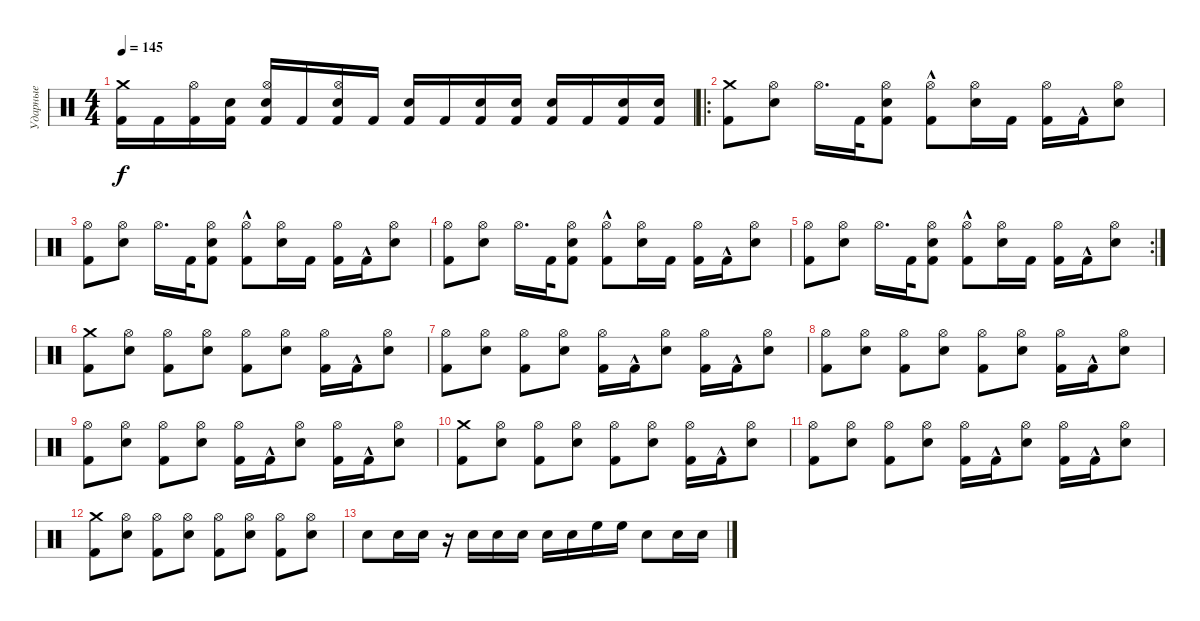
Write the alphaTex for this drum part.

\track ("Ударные" "Ударные") {instrument percussion}
\staff {score}
\articulation defaults
\ts (4 4)
\tempo 145
\clef neutral
\ks c
("Crash medium (hit)" "Kick (hit) 2").16{dy f} "Kick (hit) 2".16 ("Hi-Hat (open)" "Kick (hit) 2").16 ("Snare (hit) 2" "Kick (hit) 2").16 ("Snare (hit) 2" "Hi-Hat (open)" "Kick (hit) 2").16 "Kick (hit) 2".16 ("Snare (hit) 2" "Hi-Hat (open)" "Kick (hit) 2").16 "Kick (hit) 2".16 ("Snare (hit) 2" "Kick (hit) 2").16 "Kick (hit) 2".16 ("Snare (hit) 2" "Kick (hit) 2").16 ("Snare (hit) 2" "Kick (hit) 2").16 ("Snare (hit) 2" "Kick (hit) 2").16 "Kick (hit) 2".16 ("Snare (hit) 2" "Kick (hit) 2").16 ("Snare (hit) 2" "Kick (hit) 2").16 |
\ro
("Kick (hit) 2" "Crash medium (hit)").8 ("Snare (hit) 2" "Hi-Hat (open)").8 "Hi-Hat (open)".16{d} "Kick (hit) 2".32 ("Kick (hit) 2" "Snare (hit) 2" "Hi-Hat (open)").8 ("Kick (hit) 2"{hac} "Hi-Hat (open)").8 ("Snare (hit) 2" "Hi-Hat (open)").16 "Kick (hit) 2".16 ("Kick (hit) 2" "Hi-Hat (open)").16 "Kick (hit) 2"{hac}.16 ("Snare (hit) 2" "Hi-Hat (open)").8 |
("Hi-Hat (open)" "Kick (hit) 2").8 ("Snare (hit) 2" "Hi-Hat (open)").8 "Hi-Hat (open)".16{d} "Kick (hit) 2".32 ("Kick (hit) 2" "Snare (hit) 2" "Hi-Hat (open)").8 ("Kick (hit) 2"{hac} "Hi-Hat (open)").8 ("Snare (hit) 2" "Hi-Hat (open)").16 "Kick (hit) 2".16 ("Kick (hit) 2" "Hi-Hat (open)").16 "Kick (hit) 2"{hac}.16 ("Snare (hit) 2" "Hi-Hat (open)").8 |
("Hi-Hat (open)" "Kick (hit) 2").8 ("Snare (hit) 2" "Hi-Hat (open)").8 "Hi-Hat (open)".16{d} "Kick (hit) 2".32 ("Kick (hit) 2" "Snare (hit) 2" "Hi-Hat (open)").8 ("Kick (hit) 2"{hac} "Hi-Hat (open)").8 ("Snare (hit) 2" "Hi-Hat (open)").16 "Kick (hit) 2".16 ("Kick (hit) 2" "Hi-Hat (open)").16 "Kick (hit) 2"{hac}.16 ("Snare (hit) 2" "Hi-Hat (open)").8 |
\rc 2
("Hi-Hat (open)" "Kick (hit) 2").8 ("Snare (hit) 2" "Hi-Hat (open)").8 "Hi-Hat (open)".16{d} "Kick (hit) 2".32 ("Kick (hit) 2" "Snare (hit) 2" "Hi-Hat (open)").8 ("Kick (hit) 2"{hac} "Hi-Hat (open)").8 ("Snare (hit) 2" "Hi-Hat (open)").16 "Kick (hit) 2".16 ("Kick (hit) 2" "Hi-Hat (open)").16 "Kick (hit) 2"{hac}.16 ("Snare (hit) 2" "Hi-Hat (open)").8 |
("Kick (hit) 2" "Crash medium (hit)").8 ("Snare (hit) 2" "Hi-Hat (open)").8 ("Kick (hit) 2" "Hi-Hat (open)").8 ("Snare (hit) 2" "Hi-Hat (open)").8 ("Kick (hit) 2" "Hi-Hat (open)").8 ("Snare (hit) 2" "Hi-Hat (open)").8 ("Kick (hit) 2" "Hi-Hat (open)").16 "Kick (hit) 2"{hac}.16 ("Snare (hit) 2" "Hi-Hat (open)").8 |
("Kick (hit) 2" "Hi-Hat (open)").8 ("Snare (hit) 2" "Hi-Hat (open)").8 ("Kick (hit) 2" "Hi-Hat (open)").8 ("Snare (hit) 2" "Hi-Hat (open)").8 ("Kick (hit) 2" "Hi-Hat (open)").16 "Kick (hit) 2"{hac}.16 ("Snare (hit) 2" "Hi-Hat (open)").8 ("Kick (hit) 2" "Hi-Hat (open)").16 "Kick (hit) 2"{hac}.16 ("Snare (hit) 2" "Hi-Hat (open)").8 |
("Hi-Hat (open)" "Kick (hit) 2").8 ("Snare (hit) 2" "Hi-Hat (open)").8 ("Kick (hit) 2" "Hi-Hat (open)").8 ("Snare (hit) 2" "Hi-Hat (open)").8 ("Kick (hit) 2" "Hi-Hat (open)").8 ("Snare (hit) 2" "Hi-Hat (open)").8 ("Kick (hit) 2" "Hi-Hat (open)").16 "Kick (hit) 2"{hac}.16 ("Snare (hit) 2" "Hi-Hat (open)").8 |
("Kick (hit) 2" "Hi-Hat (open)").8 ("Snare (hit) 2" "Hi-Hat (open)").8 ("Kick (hit) 2" "Hi-Hat (open)").8 ("Snare (hit) 2" "Hi-Hat (open)").8 ("Kick (hit) 2" "Hi-Hat (open)").16 "Kick (hit) 2"{hac}.16 ("Snare (hit) 2" "Hi-Hat (open)").8 ("Kick (hit) 2" "Hi-Hat (open)").16 "Kick (hit) 2"{hac}.16 ("Snare (hit) 2" "Hi-Hat (open)").8 |
("Kick (hit) 2" "Crash medium (hit)").8 ("Snare (hit) 2" "Hi-Hat (open)").8 ("Kick (hit) 2" "Hi-Hat (open)").8 ("Snare (hit) 2" "Hi-Hat (open)").8 ("Kick (hit) 2" "Hi-Hat (open)").8 ("Snare (hit) 2" "Hi-Hat (open)").8 ("Kick (hit) 2" "Hi-Hat (open)").16 "Kick (hit) 2"{hac}.16 ("Snare (hit) 2" "Hi-Hat (open)").8 |
("Kick (hit) 2" "Hi-Hat (open)").8 ("Snare (hit) 2" "Hi-Hat (open)").8 ("Kick (hit) 2" "Hi-Hat (open)").8 ("Snare (hit) 2" "Hi-Hat (open)").8 ("Kick (hit) 2" "Hi-Hat (open)").16 "Kick (hit) 2"{hac}.16 ("Snare (hit) 2" "Hi-Hat (open)").8 ("Kick (hit) 2" "Hi-Hat (open)").16 "Kick (hit) 2"{hac}.16 ("Snare (hit) 2" "Hi-Hat (open)").8 |
("Kick (hit) 2" "Crash medium (hit)").8 ("Snare (hit) 2" "Hi-Hat (open)").8 ("Kick (hit) 2" "Hi-Hat (open)").8 ("Snare (hit) 2" "Hi-Hat (open)").8 ("Kick (hit) 2" "Hi-Hat (open)").8 ("Snare (hit) 2" "Hi-Hat (open)").8 ("Kick (hit) 2" "Hi-Hat (open)").8 ("Snare (hit) 2" "Hi-Hat (open)").8 |
"Snare (hit) 2".8 "Snare (hit) 2".16 "Snare (hit) 2".16 r.16 "Snare (hit) 2".16 "Snare (hit) 2".16 "Snare (hit) 2".16 "Snare (hit) 2".16 "Snare (hit) 2".16 "High Floor Tom (hit)".16 "High Floor Tom (hit)".16 "Snare (hit) 2".8 "Snare (hit) 2".16 "Snare (hit) 2".16
